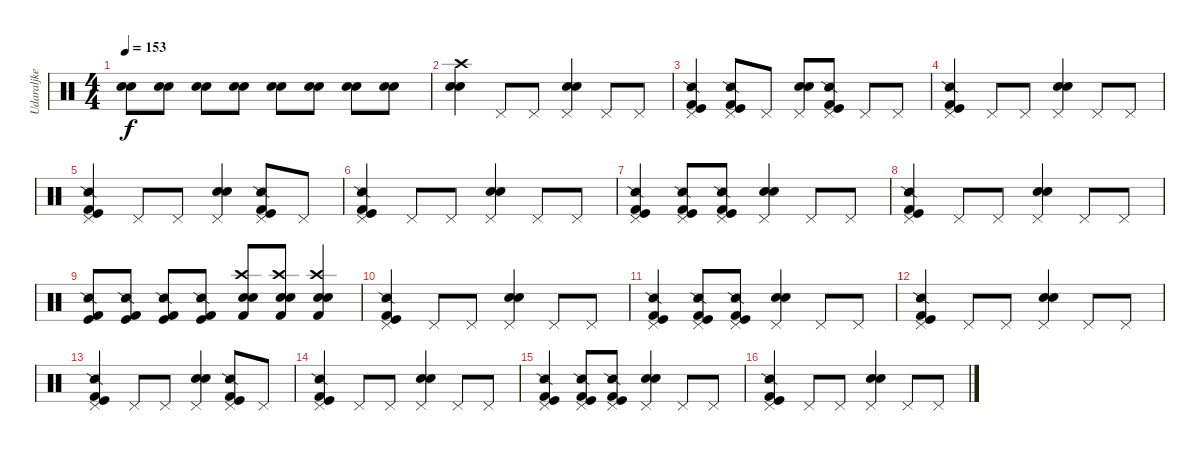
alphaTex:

\track ("Udaraljke" "Udaraljke") {instrument percussion}
\staff {score}
\articulation defaults
\ts (4 4)
\tempo 153
\clef neutral
\ks c
("Electric Snare (hit)" "Snare (hit) 2").8{dy f} ("Electric Snare (hit)" "Snare (hit) 2").8 ("Electric Snare (hit)" "Snare (hit) 2").8 ("Electric Snare (hit)" "Snare (hit) 2").8 ("Electric Snare (hit)" "Snare (hit) 2").8 ("Electric Snare (hit)" "Snare (hit) 2").8 ("Electric Snare (hit)" "Snare (hit) 2").8 ("Electric Snare (hit)" "Snare (hit) 2").8 |
("Crash high (hit)" "Electric Snare (hit)" "Snare (hit) 2").4 "Pedal Hi-Hat (hit)".8 "Pedal Hi-Hat (hit)".8 ("Pedal Hi-Hat (hit)" "Electric Snare (hit)" "Snare (hit) 2").4 "Pedal Hi-Hat (hit)".8 "Pedal Hi-Hat (hit)".8 |
("Pedal Hi-Hat (hit)" "Kick (hit) 2" "Kick (hit)" "Snare (side stick) 2").4 ("Pedal Hi-Hat (hit)" "Kick (hit) 2" "Kick (hit)" "Snare (side stick) 2").8 "Pedal Hi-Hat (hit)".8 ("Pedal Hi-Hat (hit)" "Electric Snare (hit)" "Snare (hit) 2").8 ("Pedal Hi-Hat (hit)" "Kick (hit) 2" "Kick (hit)" "Snare (side stick) 2").8 "Pedal Hi-Hat (hit)".8 "Pedal Hi-Hat (hit)".8 |
("Pedal Hi-Hat (hit)" "Kick (hit) 2" "Kick (hit)" "Snare (side stick) 2").4 "Pedal Hi-Hat (hit)".8 "Pedal Hi-Hat (hit)".8 ("Pedal Hi-Hat (hit)" "Electric Snare (hit)" "Snare (hit) 2").4 "Pedal Hi-Hat (hit)".8 "Pedal Hi-Hat (hit)".8 |
("Pedal Hi-Hat (hit)" "Kick (hit) 2" "Kick (hit)" "Snare (side stick) 2").4 "Pedal Hi-Hat (hit)".8 "Pedal Hi-Hat (hit)".8 ("Pedal Hi-Hat (hit)" "Electric Snare (hit)" "Snare (hit) 2").4 ("Pedal Hi-Hat (hit)" "Kick (hit) 2" "Kick (hit)" "Snare (side stick) 2").8 "Pedal Hi-Hat (hit)".8 |
("Pedal Hi-Hat (hit)" "Kick (hit) 2" "Kick (hit)" "Snare (side stick) 2").4 "Pedal Hi-Hat (hit)".8 "Pedal Hi-Hat (hit)".8 ("Pedal Hi-Hat (hit)" "Electric Snare (hit)" "Snare (hit) 2").4 "Pedal Hi-Hat (hit)".8 "Pedal Hi-Hat (hit)".8 |
("Pedal Hi-Hat (hit)" "Kick (hit) 2" "Kick (hit)" "Snare (side stick) 2").4 ("Pedal Hi-Hat (hit)" "Kick (hit) 2" "Kick (hit)" "Snare (side stick) 2").8 ("Pedal Hi-Hat (hit)" "Kick (hit) 2" "Kick (hit)" "Snare (side stick) 2").8 ("Pedal Hi-Hat (hit)" "Electric Snare (hit)" "Snare (hit) 2").4 "Pedal Hi-Hat (hit)".8 "Pedal Hi-Hat (hit)".8 |
("Pedal Hi-Hat (hit)" "Kick (hit) 2" "Kick (hit)" "Snare (side stick) 2").4 "Pedal Hi-Hat (hit)".8 "Pedal Hi-Hat (hit)".8 ("Pedal Hi-Hat (hit)" "Electric Snare (hit)" "Snare (hit) 2").4 "Pedal Hi-Hat (hit)".8 "Pedal Hi-Hat (hit)".8 |
("Kick (hit) 2" "Kick (hit)" "Snare (side stick) 2").8 ("Kick (hit) 2" "Kick (hit)" "Snare (side stick) 2").8 ("Kick (hit) 2" "Kick (hit)" "Snare (side stick) 2").8 ("Kick (hit) 2" "Kick (hit)" "Snare (side stick) 2").8 ("Crash high (hit)" "Electric Snare (hit)" "Snare (hit) 2" "Kick (hit) 2").8 ("Crash high (hit)" "Electric Snare (hit)" "Snare (hit) 2" "Kick (hit) 2").8 ("Crash high (hit)" "Electric Snare (hit)" "Snare (hit) 2" "Kick (hit) 2").4 |
("Pedal Hi-Hat (hit)" "Kick (hit) 2" "Kick (hit)" "Snare (side stick) 2").4 "Pedal Hi-Hat (hit)".8 "Pedal Hi-Hat (hit)".8 ("Pedal Hi-Hat (hit)" "Electric Snare (hit)" "Snare (hit) 2").4 "Pedal Hi-Hat (hit)".8 "Pedal Hi-Hat (hit)".8 |
("Pedal Hi-Hat (hit)" "Kick (hit) 2" "Kick (hit)" "Snare (side stick) 2").4 ("Pedal Hi-Hat (hit)" "Kick (hit) 2" "Kick (hit)" "Snare (side stick) 2").8 ("Pedal Hi-Hat (hit)" "Kick (hit) 2" "Kick (hit)" "Snare (side stick) 2").8 ("Pedal Hi-Hat (hit)" "Electric Snare (hit)" "Snare (hit) 2").4 "Pedal Hi-Hat (hit)".8 "Pedal Hi-Hat (hit)".8 |
("Pedal Hi-Hat (hit)" "Kick (hit) 2" "Kick (hit)" "Snare (side stick) 2").4 "Pedal Hi-Hat (hit)".8 "Pedal Hi-Hat (hit)".8 ("Pedal Hi-Hat (hit)" "Electric Snare (hit)" "Snare (hit) 2").4 "Pedal Hi-Hat (hit)".8 "Pedal Hi-Hat (hit)".8 |
("Pedal Hi-Hat (hit)" "Kick (hit) 2" "Kick (hit)" "Snare (side stick) 2").4 "Pedal Hi-Hat (hit)".8 "Pedal Hi-Hat (hit)".8 ("Pedal Hi-Hat (hit)" "Electric Snare (hit)" "Snare (hit) 2").4 ("Pedal Hi-Hat (hit)" "Kick (hit) 2" "Kick (hit)" "Snare (side stick) 2").8 "Pedal Hi-Hat (hit)".8 |
("Pedal Hi-Hat (hit)" "Kick (hit) 2" "Kick (hit)" "Snare (side stick) 2").4 "Pedal Hi-Hat (hit)".8 "Pedal Hi-Hat (hit)".8 ("Pedal Hi-Hat (hit)" "Electric Snare (hit)" "Snare (hit) 2").4 "Pedal Hi-Hat (hit)".8 "Pedal Hi-Hat (hit)".8 |
("Pedal Hi-Hat (hit)" "Kick (hit) 2" "Kick (hit)" "Snare (side stick) 2").4 ("Pedal Hi-Hat (hit)" "Kick (hit) 2" "Kick (hit)" "Snare (side stick) 2").8 ("Pedal Hi-Hat (hit)" "Kick (hit) 2" "Kick (hit)" "Snare (side stick) 2").8 ("Pedal Hi-Hat (hit)" "Electric Snare (hit)" "Snare (hit) 2").4 "Pedal Hi-Hat (hit)".8 "Pedal Hi-Hat (hit)".8 |
("Pedal Hi-Hat (hit)" "Kick (hit) 2" "Kick (hit)" "Snare (side stick) 2").4 "Pedal Hi-Hat (hit)".8 "Pedal Hi-Hat (hit)".8 ("Pedal Hi-Hat (hit)" "Electric Snare (hit)" "Snare (hit) 2").4 "Pedal Hi-Hat (hit)".8 "Pedal Hi-Hat (hit)".8
